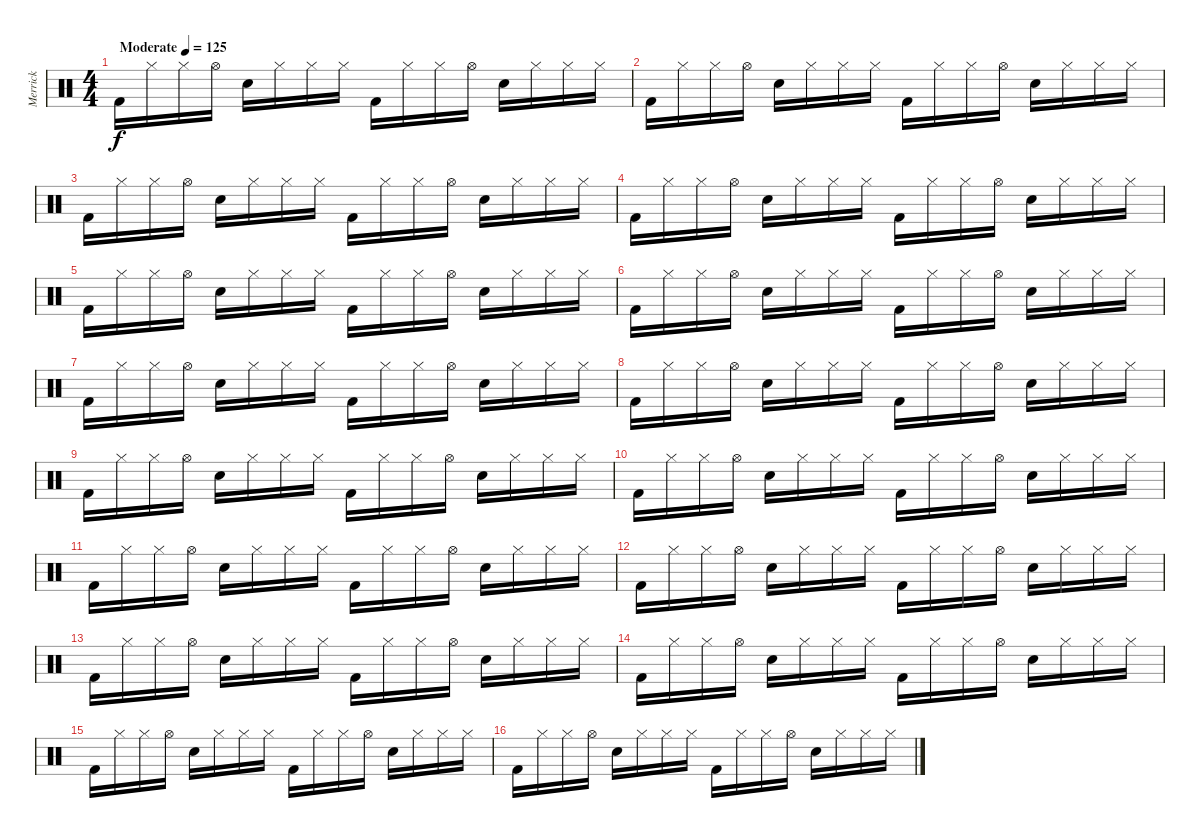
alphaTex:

\track ("Merrick " "Merrick ") {instrument percussion}
\staff {score}
\articulation defaults
\ts (4 4)
\tempo (125 "Moderate")
\clef neutral
\ks c "Kick (hit) 2".16{dy f} "Hi-Hat (closed)".16 "Hi-Hat (closed)".16 "Hi-Hat (open)".16 "Electric Snare (hit)".16 "Hi-Hat (closed)".16 "Hi-Hat (closed)".16 "Hi-Hat (closed)".16 "Kick (hit) 2".16 "Hi-Hat (closed)".16 "Hi-Hat (closed)".16 "Hi-Hat (open)".16 "Electric Snare (hit)".16 "Hi-Hat (closed)".16 "Hi-Hat (closed)".16 "Hi-Hat (closed)".16
|
"Kick (hit) 2".16 "Hi-Hat (closed)".16 "Hi-Hat (closed)".16 "Hi-Hat (open)".16 "Electric Snare (hit)".16 "Hi-Hat (closed)".16 "Hi-Hat (closed)".16 "Hi-Hat (closed)".16 "Kick (hit) 2".16 "Hi-Hat (closed)".16 "Hi-Hat (closed)".16 "Hi-Hat (open)".16 "Electric Snare (hit)".16 "Hi-Hat (closed)".16 "Hi-Hat (closed)".16 "Hi-Hat (closed)".16 |
"Kick (hit) 2".16 "Hi-Hat (closed)".16 "Hi-Hat (closed)".16 "Hi-Hat (open)".16 "Electric Snare (hit)".16 "Hi-Hat (closed)".16 "Hi-Hat (closed)".16 "Hi-Hat (closed)".16 "Kick (hit) 2".16 "Hi-Hat (closed)".16 "Hi-Hat (closed)".16 "Hi-Hat (open)".16 "Electric Snare (hit)".16 "Hi-Hat (closed)".16 "Hi-Hat (closed)".16 "Hi-Hat (closed)".16 |
"Kick (hit) 2".16 "Hi-Hat (closed)".16 "Hi-Hat (closed)".16 "Hi-Hat (open)".16 "Electric Snare (hit)".16 "Hi-Hat (closed)".16 "Hi-Hat (closed)".16 "Hi-Hat (closed)".16 "Kick (hit) 2".16 "Hi-Hat (closed)".16 "Hi-Hat (closed)".16 "Hi-Hat (open)".16 "Electric Snare (hit)".16 "Hi-Hat (closed)".16 "Hi-Hat (closed)".16 "Hi-Hat (closed)".16 |
"Kick (hit) 2".16 "Hi-Hat (closed)".16 "Hi-Hat (closed)".16 "Hi-Hat (open)".16 "Electric Snare (hit)".16 "Hi-Hat (closed)".16 "Hi-Hat (closed)".16 "Hi-Hat (closed)".16 "Kick (hit) 2".16 "Hi-Hat (closed)".16 "Hi-Hat (closed)".16 "Hi-Hat (open)".16 "Electric Snare (hit)".16 "Hi-Hat (closed)".16 "Hi-Hat (closed)".16 "Hi-Hat (closed)".16 |
"Kick (hit) 2".16 "Hi-Hat (closed)".16 "Hi-Hat (closed)".16 "Hi-Hat (open)".16 "Electric Snare (hit)".16 "Hi-Hat (closed)".16 "Hi-Hat (closed)".16 "Hi-Hat (closed)".16 "Kick (hit) 2".16 "Hi-Hat (closed)".16 "Hi-Hat (closed)".16 "Hi-Hat (open)".16 "Electric Snare (hit)".16 "Hi-Hat (closed)".16 "Hi-Hat (closed)".16 "Hi-Hat (closed)".16 |
"Kick (hit) 2".16 "Hi-Hat (closed)".16 "Hi-Hat (closed)".16 "Hi-Hat (open)".16 "Electric Snare (hit)".16 "Hi-Hat (closed)".16 "Hi-Hat (closed)".16 "Hi-Hat (closed)".16 "Kick (hit) 2".16 "Hi-Hat (closed)".16 "Hi-Hat (closed)".16 "Hi-Hat (open)".16 "Electric Snare (hit)".16 "Hi-Hat (closed)".16 "Hi-Hat (closed)".16 "Hi-Hat (closed)".16 |
"Kick (hit) 2".16 "Hi-Hat (closed)".16 "Hi-Hat (closed)".16 "Hi-Hat (open)".16 "Electric Snare (hit)".16 "Hi-Hat (closed)".16 "Hi-Hat (closed)".16 "Hi-Hat (closed)".16 "Kick (hit) 2".16 "Hi-Hat (closed)".16 "Hi-Hat (closed)".16 "Hi-Hat (open)".16 "Electric Snare (hit)".16 "Hi-Hat (closed)".16 "Hi-Hat (closed)".16 "Hi-Hat (closed)".16 |
"Kick (hit) 2".16 "Hi-Hat (closed)".16 "Hi-Hat (closed)".16 "Hi-Hat (open)".16 "Electric Snare (hit)".16 "Hi-Hat (closed)".16 "Hi-Hat (closed)".16 "Hi-Hat (closed)".16 "Kick (hit) 2".16 "Hi-Hat (closed)".16 "Hi-Hat (closed)".16 "Hi-Hat (open)".16 "Electric Snare (hit)".16 "Hi-Hat (closed)".16 "Hi-Hat (closed)".16 "Hi-Hat (closed)".16 |
"Kick (hit) 2".16 "Hi-Hat (closed)".16 "Hi-Hat (closed)".16 "Hi-Hat (open)".16 "Electric Snare (hit)".16 "Hi-Hat (closed)".16 "Hi-Hat (closed)".16 "Hi-Hat (closed)".16 "Kick (hit) 2".16 "Hi-Hat (closed)".16 "Hi-Hat (closed)".16 "Hi-Hat (open)".16 "Electric Snare (hit)".16 "Hi-Hat (closed)".16 "Hi-Hat (closed)".16 "Hi-Hat (closed)".16 |
"Kick (hit) 2".16 "Hi-Hat (closed)".16 "Hi-Hat (closed)".16 "Hi-Hat (open)".16 "Electric Snare (hit)".16 "Hi-Hat (closed)".16 "Hi-Hat (closed)".16 "Hi-Hat (closed)".16 "Kick (hit) 2".16 "Hi-Hat (closed)".16 "Hi-Hat (closed)".16 "Hi-Hat (open)".16 "Electric Snare (hit)".16 "Hi-Hat (closed)".16 "Hi-Hat (closed)".16 "Hi-Hat (closed)".16 |
"Kick (hit) 2".16 "Hi-Hat (closed)".16 "Hi-Hat (closed)".16 "Hi-Hat (open)".16 "Electric Snare (hit)".16 "Hi-Hat (closed)".16 "Hi-Hat (closed)".16 "Hi-Hat (closed)".16 "Kick (hit) 2".16 "Hi-Hat (closed)".16 "Hi-Hat (closed)".16 "Hi-Hat (open)".16 "Electric Snare (hit)".16 "Hi-Hat (closed)".16 "Hi-Hat (closed)".16 "Hi-Hat (closed)".16 |
"Kick (hit) 2".16 "Hi-Hat (closed)".16 "Hi-Hat (closed)".16 "Hi-Hat (open)".16 "Electric Snare (hit)".16 "Hi-Hat (closed)".16 "Hi-Hat (closed)".16 "Hi-Hat (closed)".16 "Kick (hit) 2".16 "Hi-Hat (closed)".16 "Hi-Hat (closed)".16 "Hi-Hat (open)".16 "Electric Snare (hit)".16 "Hi-Hat (closed)".16 "Hi-Hat (closed)".16 "Hi-Hat (closed)".16 |
"Kick (hit) 2".16 "Hi-Hat (closed)".16 "Hi-Hat (closed)".16 "Hi-Hat (open)".16 "Electric Snare (hit)".16 "Hi-Hat (closed)".16 "Hi-Hat (closed)".16 "Hi-Hat (closed)".16 "Kick (hit) 2".16 "Hi-Hat (closed)".16 "Hi-Hat (closed)".16 "Hi-Hat (open)".16 "Electric Snare (hit)".16 "Hi-Hat (closed)".16 "Hi-Hat (closed)".16 "Hi-Hat (closed)".16 |
"Kick (hit) 2".16 "Hi-Hat (closed)".16 "Hi-Hat (closed)".16 "Hi-Hat (open)".16 "Electric Snare (hit)".16 "Hi-Hat (closed)".16 "Hi-Hat (closed)".16 "Hi-Hat (closed)".16 "Kick (hit) 2".16 "Hi-Hat (closed)".16 "Hi-Hat (closed)".16 "Hi-Hat (open)".16 "Electric Snare (hit)".16 "Hi-Hat (closed)".16 "Hi-Hat (closed)".16 "Hi-Hat (closed)".16 |
"Kick (hit) 2".16 "Hi-Hat (closed)".16 "Hi-Hat (closed)".16 "Hi-Hat (open)".16 "Electric Snare (hit)".16 "Hi-Hat (closed)".16 "Hi-Hat (closed)".16 "Hi-Hat (closed)".16 "Kick (hit) 2".16 "Hi-Hat (closed)".16 "Hi-Hat (closed)".16 "Hi-Hat (open)".16 "Electric Snare (hit)".16 "Hi-Hat (closed)".16 "Hi-Hat (closed)".16 "Hi-Hat (closed)".16
